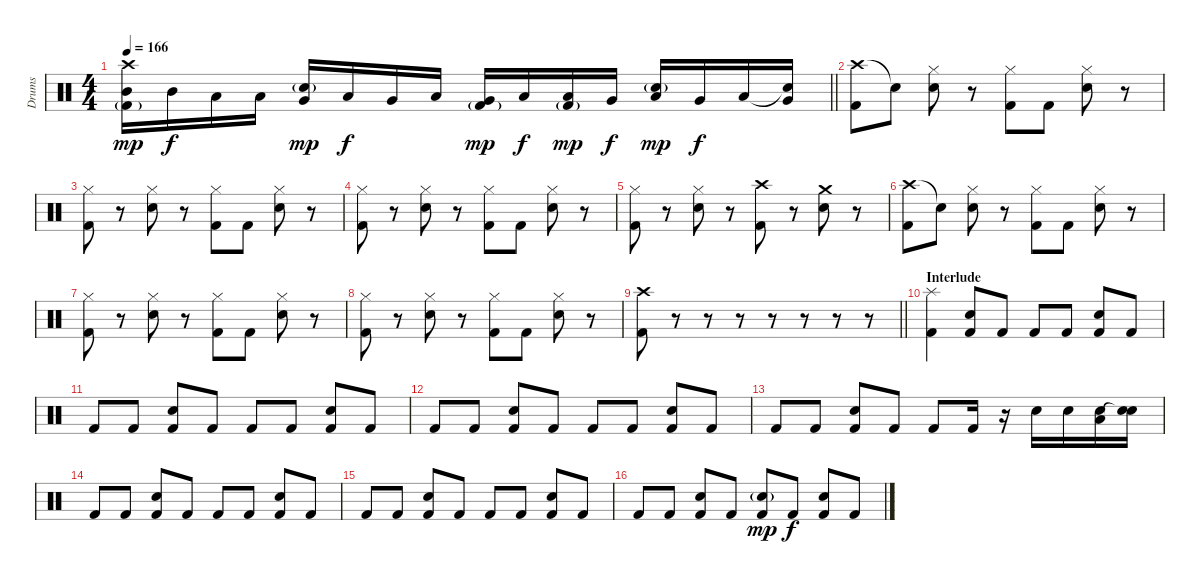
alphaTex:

\track ("Drums" "Drums") {instrument percussion}
\staff {score}
\articulation defaults
\ts (4 4)
\tempo 166
\clef neutral
\barLineRight lightlight
\ks c
("Crash high (hit)" "Mid Tom (hit)" "Kick (hit) 2"{g}).16{dy mp} "Mid Tom (hit)".16{dy f} "Low Tom (hit)".16 "Low Tom (hit)".16 ("Very Low Tom (hit)" "Electric Snare (hit)"{g}).16{dy mp} "Low Tom (hit)".16{dy f} "Very Low Tom (hit)".16 "Low Floor Tom (hit)".16 ("Very Low Tom (hit)" "Kick (hit) 2"{g}).16{dy mp} "Low Floor Tom (hit)".16{dy f} ("Low Tom (hit)" "Kick (hit) 2"{g}).16{dy mp} "Very Low Tom (hit)".16{dy f} ("Low Tom (hit)" "Electric Snare (hit)"{g}).16{dy mp} "Very Low Tom (hit)".16{dy f} "Low Floor Tom (hit)".16 ("Snare (hit)"{t} "Very Low Tom (hit)").16 |
("Crash high (hit)" "Kick (hit) 2").8 "Snare (hit)"{t}.8 ("Hi-Hat (closed)" "Electric Snare (hit)").8 r.8 ("Hi-Hat (closed)" "Kick (hit) 2").8 "Kick (hit) 2".8 ("Hi-Hat (closed)" "Electric Snare (hit)").8 r.8 |
("Hi-Hat (closed)" "Kick (hit) 2").8 r.8 ("Hi-Hat (closed)" "Electric Snare (hit)").8 r.8 ("Hi-Hat (closed)" "Kick (hit) 2").8 "Kick (hit) 2".8 ("Hi-Hat (closed)" "Electric Snare (hit)").8 r.8 |
("Hi-Hat (closed)" "Kick (hit) 2").8 r.8 ("Hi-Hat (closed)" "Electric Snare (hit)").8 r.8 ("Hi-Hat (closed)" "Kick (hit) 2").8 "Kick (hit) 2".8 ("Hi-Hat (closed)" "Electric Snare (hit)").8 r.8 |
("Hi-Hat (closed)" "Kick (hit) 2").8 r.8 ("Hi-Hat (closed)" "Electric Snare (hit)").8 r.8 ("Crash high (hit)" "Kick (hit) 2").8 r.8 ("Crash medium (hit)" "Electric Snare (hit)").8 r.8 |
("Crash high (hit)" "Kick (hit) 2").8 "Snare (hit)"{t}.8 ("Hi-Hat (closed)" "Electric Snare (hit)").8 r.8 ("Hi-Hat (closed)" "Kick (hit) 2").8 "Kick (hit) 2".8 ("Hi-Hat (closed)" "Electric Snare (hit)").8 r.8 |
("Hi-Hat (closed)" "Kick (hit) 2").8 r.8 ("Hi-Hat (closed)" "Electric Snare (hit)").8 r.8 ("Hi-Hat (closed)" "Kick (hit) 2").8 "Kick (hit) 2".8 ("Hi-Hat (closed)" "Electric Snare (hit)").8 r.8 |
("Hi-Hat (closed)" "Kick (hit) 2").8 r.8 ("Hi-Hat (closed)" "Electric Snare (hit)").8 r.8 ("Hi-Hat (closed)" "Kick (hit) 2").8 "Kick (hit) 2".8 ("Hi-Hat (closed)" "Electric Snare (hit)").8 r.8 |
\barLineRight lightlight
("Kick (hit) 2" "Crash high (hit)").8 r.8 r.8 r.8 r.8 r.8 r.8 r.8 |
\section ("" "Interlude")
("Splash (hit)" "Kick (hit) 2").4 ("Kick (hit) 2" "Electric Snare (hit)").8 "Kick (hit) 2".8 "Kick (hit) 2".8 "Kick (hit) 2".8 ("Kick (hit) 2" "Electric Snare (hit)").8 "Kick (hit) 2".8 |
"Kick (hit) 2".8 "Kick (hit) 2".8 ("Kick (hit) 2" "Electric Snare (hit)").8 "Kick (hit) 2".8 "Kick (hit) 2".8 "Kick (hit) 2".8 ("Kick (hit) 2" "Electric Snare (hit)").8 "Kick (hit) 2".8 |
"Kick (hit) 2".8 "Kick (hit) 2".8 ("Kick (hit) 2" "Electric Snare (hit)").8 "Kick (hit) 2".8 "Kick (hit) 2".8 "Kick (hit) 2".8 ("Kick (hit) 2" "Electric Snare (hit)").8 "Kick (hit) 2".8 |
"Kick (hit) 2".8 "Kick (hit) 2".8 ("Kick (hit) 2" "Electric Snare (hit)").8 "Kick (hit) 2".8 "Kick (hit) 2".8 "Kick (hit) 2".16 r.16 "Electric Snare (hit)".16 "Electric Snare (hit)".16 ("Low Floor Tom (hit)" "Electric Snare (hit)").16 ("Snare (hit)"{t} "Electric Snare (hit)").16 |
"Kick (hit) 2".8 "Kick (hit) 2".8 ("Kick (hit) 2" "Electric Snare (hit)").8 "Kick (hit) 2".8 "Kick (hit) 2".8 "Kick (hit) 2".8 ("Kick (hit) 2" "Electric Snare (hit)").8 "Kick (hit) 2".8 |
"Kick (hit) 2".8 "Kick (hit) 2".8 ("Kick (hit) 2" "Electric Snare (hit)").8 "Kick (hit) 2".8 "Kick (hit) 2".8 "Kick (hit) 2".8 ("Kick (hit) 2" "Electric Snare (hit)").8 "Kick (hit) 2".8 |
"Kick (hit) 2".8 "Kick (hit) 2".8 ("Kick (hit) 2" "Electric Snare (hit)").8 "Kick (hit) 2".8 ("Electric Snare (hit)"{g} "Kick (hit) 2").8{dy mp} "Kick (hit) 2".8{dy f} ("Kick (hit) 2" "Electric Snare (hit)").8 "Kick (hit) 2".8
